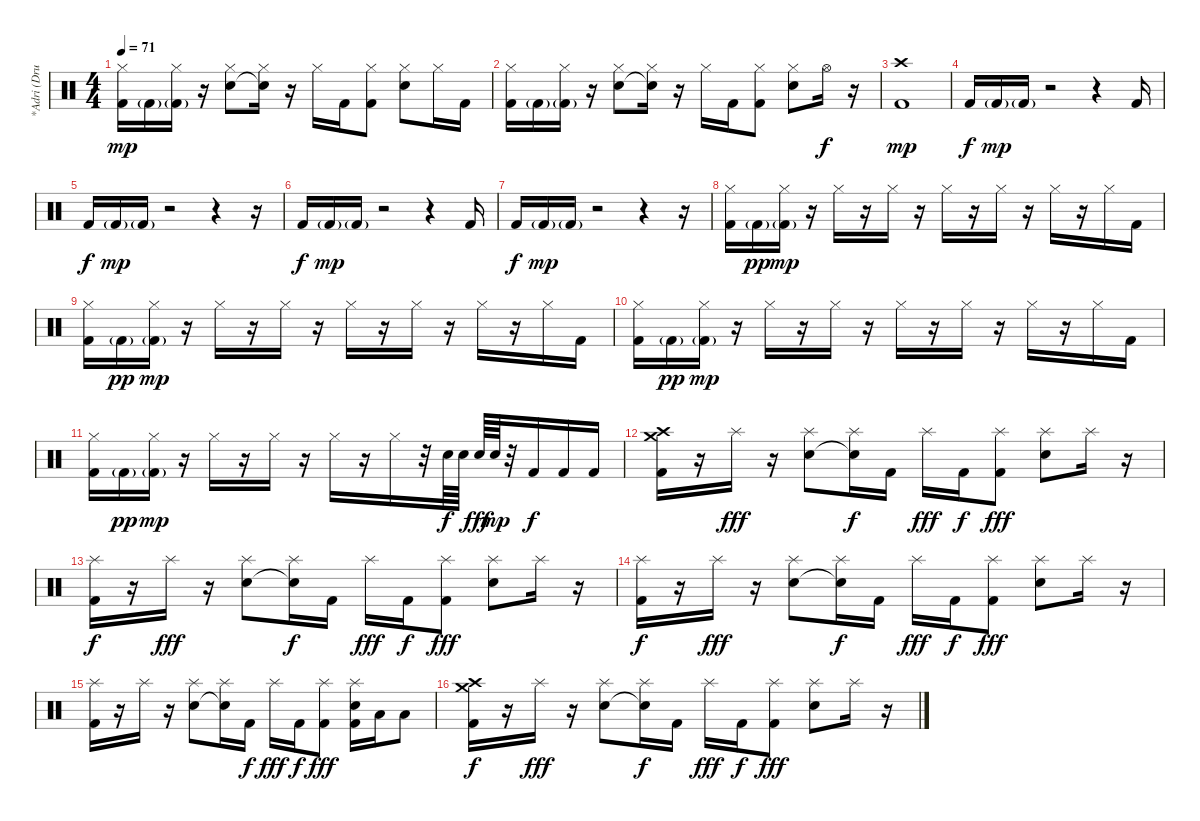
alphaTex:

\track ("*Adri (Drum)" "*Adri (Dru") {instrument percussion}
\staff {score}
\articulation defaults
\ts (4 4)
\tempo 71
\clef neutral
\ks c
("Kick (hit) 2" "Hi-Hat (closed)").16{dy mp} "Kick (hit) 2"{g}.16 ("Kick (hit) 2"{g} "Hi-Hat (closed)").16 r.16 ("Electric Snare (hit)" "Hi-Hat (closed)").8 ("Snare (hit)"{t} "Hi-Hat (closed)").16 r.16 "Hi-Hat (closed)".16 "Kick (hit) 2".16 ("Kick (hit) 2" "Hi-Hat (closed)").8 ("Electric Snare (hit)" "Hi-Hat (closed)").8 "Hi-Hat (closed)".16 "Kick (hit) 2".16 |
("Kick (hit) 2" "Hi-Hat (closed)").16 "Kick (hit) 2"{g}.16 ("Kick (hit) 2"{g} "Hi-Hat (closed)").16 r.16 ("Electric Snare (hit)" "Hi-Hat (closed)").8 ("Snare (hit)"{t} "Hi-Hat (closed)").16 r.16 "Hi-Hat (closed)".16 "Kick (hit) 2".16 ("Kick (hit) 2" "Hi-Hat (closed)").8 ("Electric Snare (hit)" "Hi-Hat (closed)").8 "Hi-Hat (open)".16{dy f} r.16 |
("Crash high (hit)" "Kick (hit) 2").1{dy mp} |
"Kick (hit) 2".16{dy f} "Kick (hit) 2"{g}.16{dy mp} "Kick (hit) 2"{g}.16 r.2 r.4 "Kick (hit) 2".16 |
"Kick (hit) 2".16{dy f} "Kick (hit) 2"{g}.16{dy mp} "Kick (hit) 2"{g}.16 r.2 r.4 r.16 |
"Kick (hit) 2".16{dy f} "Kick (hit) 2"{g}.16{dy mp} "Kick (hit) 2"{g}.16 r.2 r.4 "Kick (hit) 2".16 |
"Kick (hit) 2".16{dy f} "Kick (hit) 2"{g}.16{dy mp} "Kick (hit) 2"{g}.16 r.2 r.4 r.16 |
("Kick (hit) 2" "Hi-Hat (closed)").16 "Kick (hit) 2"{g}.16{dy pp} ("Kick (hit) 2"{g} "Hi-Hat (closed)").16{dy mp} r.16 "Hi-Hat (closed)".16 r.16 "Hi-Hat (closed)".16 r.16 "Hi-Hat (closed)".16 r.16 "Hi-Hat (closed)".16 r.16 "Hi-Hat (closed)".16 r.16 "Hi-Hat (closed)".16 "Kick (hit) 2".16 |
("Kick (hit) 2" "Hi-Hat (closed)").16 "Kick (hit) 2"{g}.16{dy pp} ("Kick (hit) 2"{g} "Hi-Hat (closed)").16{dy mp} r.16 "Hi-Hat (closed)".16 r.16 "Hi-Hat (closed)".16 r.16 "Hi-Hat (closed)".16 r.16 "Hi-Hat (closed)".16 r.16 "Hi-Hat (closed)".16 r.16 "Hi-Hat (closed)".16 "Kick (hit) 2".16 |
("Kick (hit) 2" "Hi-Hat (closed)").16 "Kick (hit) 2"{g}.16{dy pp} ("Kick (hit) 2"{g} "Hi-Hat (closed)").16{dy mp} r.16 "Hi-Hat (closed)".16 r.16 "Hi-Hat (closed)".16 r.16 "Hi-Hat (closed)".16 r.16 "Hi-Hat (closed)".16 r.16 "Hi-Hat (closed)".16 r.16 "Hi-Hat (closed)".16 "Kick (hit) 2".16 |
("Kick (hit) 2" "Hi-Hat (closed)").16 "Kick (hit) 2"{g}.16{dy pp} ("Kick (hit) 2"{g} "Hi-Hat (closed)").16{dy mp} r.16 "Hi-Hat (closed)".16 r.16 "Hi-Hat (closed)".16 r.16 "Hi-Hat (closed)".16 r.16 "Hi-Hat (closed)".16 r.32 "Electric Snare (hit)".64{dy f} "Electric Snare (hit)".64 "Electric Snare (hit)".64{dy fff} "Electric Snare (hit)".64{dy mp} r.32 "Kick (hit) 2".16{dy f} "Kick (hit) 2".16 "Kick (hit) 2".16 |
("Kick (hit) 2" "Crash medium (hit)" "Crash high (hit)").16 r.16 "Splash (hit)".16{dy fff} r.16 ("Electric Snare (hit)" "Splash (hit)").8 ("Snare (hit)"{t} "Splash (hit)").16{dy f} "Kick (hit) 2".16 "Splash (hit)".16{dy fff} "Kick (hit) 2".16{dy f} ("Kick (hit) 2" "Splash (hit)").8{dy fff} ("Electric Snare (hit)" "Splash (hit)").8 "Splash (hit)".16 r.16 |
("Kick (hit) 2" "Splash (hit)").16{dy f} r.16 "Splash (hit)".16{dy fff} r.16 ("Electric Snare (hit)" "Splash (hit)").8 ("Snare (hit)"{t} "Splash (hit)").16{dy f} "Kick (hit) 2".16 "Splash (hit)".16{dy fff} "Kick (hit) 2".16{dy f} ("Kick (hit) 2" "Splash (hit)").8{dy fff} ("Electric Snare (hit)" "Splash (hit)").8 "Splash (hit)".16 r.16 |
("Kick (hit) 2" "Splash (hit)").16{dy f} r.16 "Splash (hit)".16{dy fff} r.16 ("Electric Snare (hit)" "Splash (hit)").8 ("Snare (hit)"{t} "Splash (hit)").16{dy f} "Kick (hit) 2".16 "Splash (hit)".16{dy fff} "Kick (hit) 2".16{dy f} ("Kick (hit) 2" "Splash (hit)").8{dy fff} ("Electric Snare (hit)" "Splash (hit)").8 "Splash (hit)".16 r.16 |
("Kick (hit) 2" "Splash (hit)").16 r.16 "Splash (hit)".16 r.16 ("Electric Snare (hit)" "Splash (hit)").8 ("Snare (hit)"{t} "Splash (hit)").16 "Kick (hit) 2".16{dy f} "Splash (hit)".16{dy fff} "Kick (hit) 2".16{dy f} ("Kick (hit) 2" "Splash (hit)").8{dy fff} ("Kick (hit) 2" "Electric Snare (hit)" "Splash (hit)").16 "Low Tom (hit)".16 "Low Floor Tom (hit)".8 |
("Kick (hit) 2" "Crash medium (hit)" "Crash high (hit)").16{dy f} r.16 "Splash (hit)".16{dy fff} r.16 ("Electric Snare (hit)" "Splash (hit)").8 ("Snare (hit)"{t} "Splash (hit)").16{dy f} "Kick (hit) 2".16 "Splash (hit)".16{dy fff} "Kick (hit) 2".16{dy f} ("Kick (hit) 2" "Splash (hit)").8{dy fff} ("Electric Snare (hit)" "Splash (hit)").8 "Splash (hit)".16 r.16
